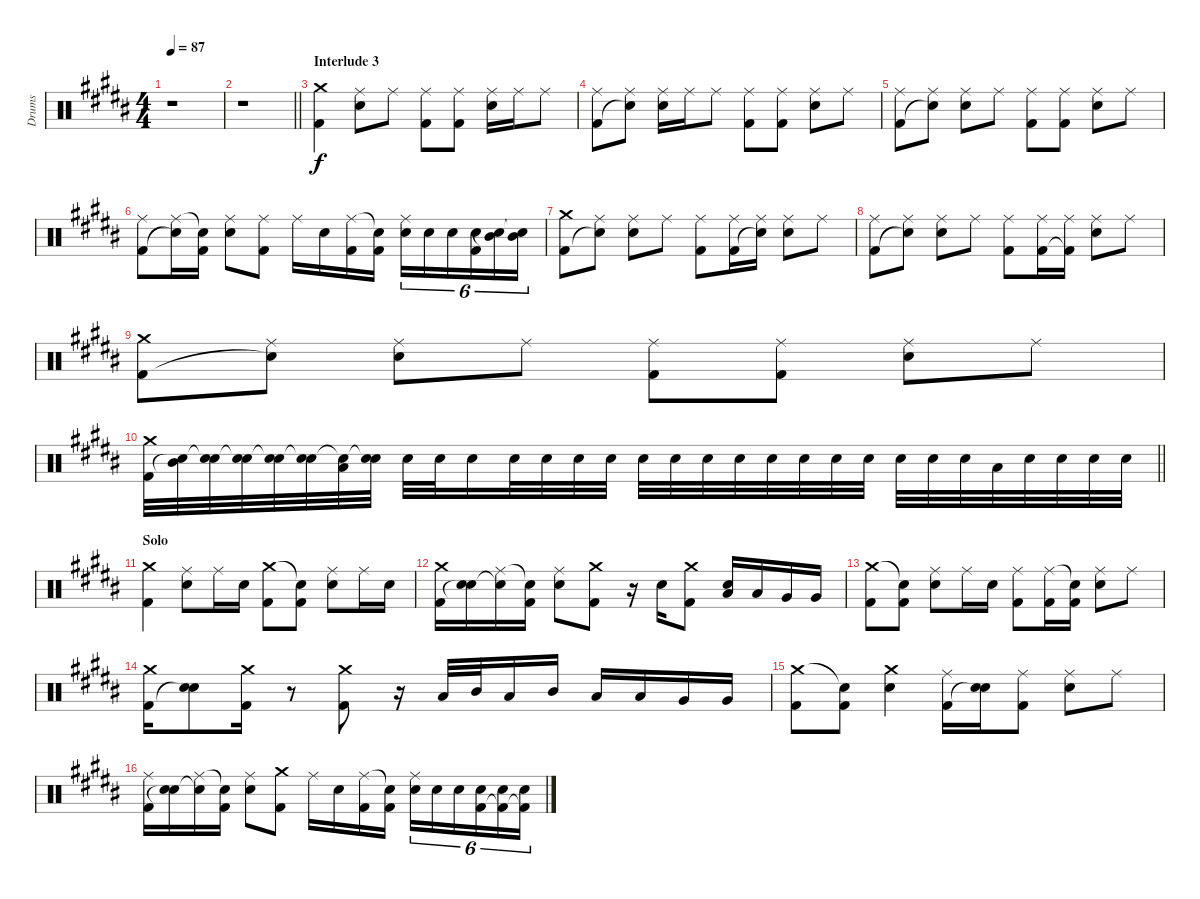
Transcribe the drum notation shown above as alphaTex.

\track ("Drums" "Drums") {instrument percussion}
\staff {score}
\articulation defaults
\ts (4 4)
\tempo 87
\clef neutral
\ks b
r.1{dy f} |
\barLineRight lightlight
r.1 |
\section ("" "Interlude 3")
("Crash medium (hit)" "Kick (hit) 2").4 ("Ride (middle)" "Electric Snare (hit)").8 "Ride (middle)".8 ("Ride (middle)" "Kick (hit) 2").8 ("Ride (middle)" "Kick (hit) 2").8 ("Ride (middle)" "Electric Snare (hit)").16 "Ride (middle)".16 "Ride (middle)".8 |
("Ride (middle)" "Kick (hit) 2").8 ("Ride (middle)" "Snare (hit)"{t}).8 ("Ride (middle)" "Electric Snare (hit)").16 "Ride (middle)".16 "Ride (middle)".8 ("Ride (middle)" "Kick (hit) 2").8 ("Ride (middle)" "Kick (hit) 2").8 ("Ride (middle)" "Electric Snare (hit)").8 "Ride (middle)".8 |
("Ride (middle)" "Kick (hit) 2").8 ("Ride (middle)" "Snare (hit)"{t}).8 ("Ride (middle)" "Electric Snare (hit)").8 "Ride (middle)".8 ("Ride (middle)" "Kick (hit) 2").8 ("Ride (middle)" "Kick (hit) 2").8 ("Ride (middle)" "Electric Snare (hit)").8 "Ride (middle)".8 |
("Ride (middle)" "Kick (hit) 2").8 ("Ride (middle)" "Snare (hit)"{t}).16 ("Snare (hit)"{t} "Kick (hit) 2").16 ("Ride (middle)" "Electric Snare (hit)").8 ("Ride (middle)" "Kick (hit) 2").8 "Ride (middle)".16 "Electric Snare (hit)".16 ("Ride (middle)" "Kick (hit) 2").16 ("Snare (hit)"{t} "Kick (hit) 2").16 ("Ride (middle)" "Electric Snare (hit)").16{tu (6 4)} "Electric Snare (hit)".16{tu (6 4)} "Electric Snare (hit)".16{tu (6 4)} ("Electric Snare (hit)" "Kick (hit) 2").16{tu (6 4)} ("Mid Tom (hit)" "Snare (hit)"{t}).16{tu (6 4)} ("Mid Tom (hit)" "Snare (hit)"{t}).16{tu (6 4)} |
("Crash medium (hit)" "Kick (hit) 2").8 ("Ride (middle)" "Snare (hit)"{t}).8 ("Ride (middle)" "Electric Snare (hit)").8 "Ride (middle)".8 ("Ride (middle)" "Kick (hit) 2").8 ("Ride (middle)" "Kick (hit) 2").16 ("Ride (middle)" "Snare (hit)"{t}).16 ("Ride (middle)" "Electric Snare (hit)").8 "Ride (middle)".8 |
("Ride (middle)" "Kick (hit) 2").8 ("Ride (middle)" "Snare (hit)"{t}).8 ("Ride (middle)" "Electric Snare (hit)").8 "Ride (middle)".8 ("Ride (middle)" "Kick (hit) 2").8 ("Ride (middle)" "Kick (hit) 2").16 ("Ride (middle)" "Kick (hit) 2"{t}).16 ("Ride (middle)" "Electric Snare (hit)").8 "Ride (middle)".8 |
("Crash medium (hit)" "Kick (hit) 2").8 ("Ride (middle)" "Snare (hit)"{t}).8 ("Ride (middle)" "Electric Snare (hit)").8 "Ride (middle)".8 ("Ride (middle)" "Kick (hit) 2").8 ("Ride (middle)" "Kick (hit) 2").8 ("Ride (middle)" "Electric Snare (hit)").8 "Ride (middle)".8 |
\barLineRight lightlight
("Crash medium (hit)" "Kick (hit) 2").32 ("Mid Tom (hit)" "Snare (hit)"{t}).32 ("Electric Snare (hit)" "Snare (hit)"{t}).32 ("Electric Snare (hit)" "Snare (hit)"{t}).32 ("Electric Snare (hit)" "Snare (hit)"{t}).32 ("Electric Snare (hit)" "Snare (hit)"{t}).32 ("Low Tom (hit)" "Snare (hit)"{t}).32 ("Electric Snare (hit)" "Snare (hit)"{t}).32 "Electric Snare (hit)".32 "Electric Snare (hit)".32 "Electric Snare (hit)".16 "Electric Snare (hit)".32 "Electric Snare (hit)".32 "Electric Snare (hit)".32 "Electric Snare (hit)".32 "Electric Snare (hit)".32 "Electric Snare (hit)".32 "Electric Snare (hit)".32 "Electric Snare (hit)".32 "Electric Snare (hit)".32 "Electric Snare (hit)".32 "Electric Snare (hit)".32 "Electric Snare (hit)".32 "Electric Snare (hit)".32 "Electric Snare (hit)".32 "Electric Snare (hit)".32 "Low Tom (hit)".32 "Electric Snare (hit)".32 "Electric Snare (hit)".32 "Electric Snare (hit)".32 "Electric Snare (hit)".32 |
\section ("" "Solo")
("Crash medium (hit)" "Kick (hit) 2").4 ("Ride (middle)" "Electric Snare (hit)").8 "Ride (middle)".16 "Electric Snare (hit)".16 ("Crash medium (hit)" "Kick (hit) 2").8 ("Snare (hit)"{t} "Kick (hit) 2").8 ("Ride (middle)" "Electric Snare (hit)").8 "Ride (middle)".16 "Electric Snare (hit)".16 |
("Crash medium (hit)" "Kick (hit) 2").16 ("Electric Snare (hit)" "Snare (hit)"{t}).16 ("Ride (middle)" "Snare (hit)"{t}).16 ("Snare (hit)"{t} "Kick (hit) 2").16 ("Ride (middle)" "Electric Snare (hit)").8 ("Crash medium (hit)" "Kick (hit) 2").8 r.16 "Electric Snare (hit)".16 ("Crash medium (hit)" "Kick (hit) 2").8 ("Electric Snare (hit)" "Low Tom (hit)").16 "Low Tom (hit)".16 "Very Low Tom (hit)".16 "Very Low Tom (hit)".16 |
("Crash medium (hit)" "Kick (hit) 2").8 ("Snare (hit)"{t} "Kick (hit) 2").8 ("Ride (middle)" "Electric Snare (hit)").8 "Ride (middle)".16 "Electric Snare (hit)".16 ("Ride (middle)" "Kick (hit) 2").8 ("Ride (middle)" "Kick (hit) 2").16 ("Snare (hit)"{t} "Kick (hit) 2").16 ("Ride (middle)" "Electric Snare (hit)").8 "Ride (middle)".8 |
("Crash medium (hit)" "Kick (hit) 2").16 ("Electric Snare (hit)" "Snare (hit)"{t}).8 ("Crash medium (hit)" "Kick (hit) 2").16 r.8 ("Crash medium (hit)" "Kick (hit) 2").8 r.16 "Low Tom (hit)".32 "Mid Tom (hit)".32 "Low Tom (hit)".16 "Mid Tom (hit)".16 "Low Tom (hit)".16 "Low Tom (hit)".16 "Very Low Tom (hit)".16 "Very Low Tom (hit)".16 |
("Crash medium (hit)" "Kick (hit) 2").8 ("Snare (hit)"{t} "Kick (hit) 2").8 ("Crash medium (hit)" "Electric Snare (hit)").4 ("Ride (middle)" "Kick (hit) 2").16 ("Electric Snare (hit)" "Snare (hit)"{t}).16 ("Ride (middle)" "Kick (hit) 2").8 ("Ride (middle)" "Electric Snare (hit)").8 "Ride (middle)".8 |
("Ride (middle)" "Kick (hit) 2").16 ("Electric Snare (hit)" "Snare (hit)"{t}).16 ("Ride (middle)" "Snare (hit)"{t}).16 ("Snare (hit)"{t} "Kick (hit) 2").16 ("Ride (middle)" "Electric Snare (hit)").8 ("Crash medium (hit)" "Kick (hit) 2").8 "Ride (middle)".16 "Electric Snare (hit)".16 ("Ride (middle)" "Kick (hit) 2").16 ("Snare (hit)"{t} "Kick (hit) 2").16 ("Ride (middle)" "Electric Snare (hit)").16{tu (6 4)} "Electric Snare (hit)".16{tu (6 4)} "Electric Snare (hit)".16{tu (6 4)} ("Electric Snare (hit)" "Kick (hit) 2").16{tu (6 4)} ("Electric Snare (hit)" "Kick (hit) 2"{t}).16{tu (6 4)} ("Electric Snare (hit)" "Kick (hit) 2"{t}).16{tu (6 4)}
